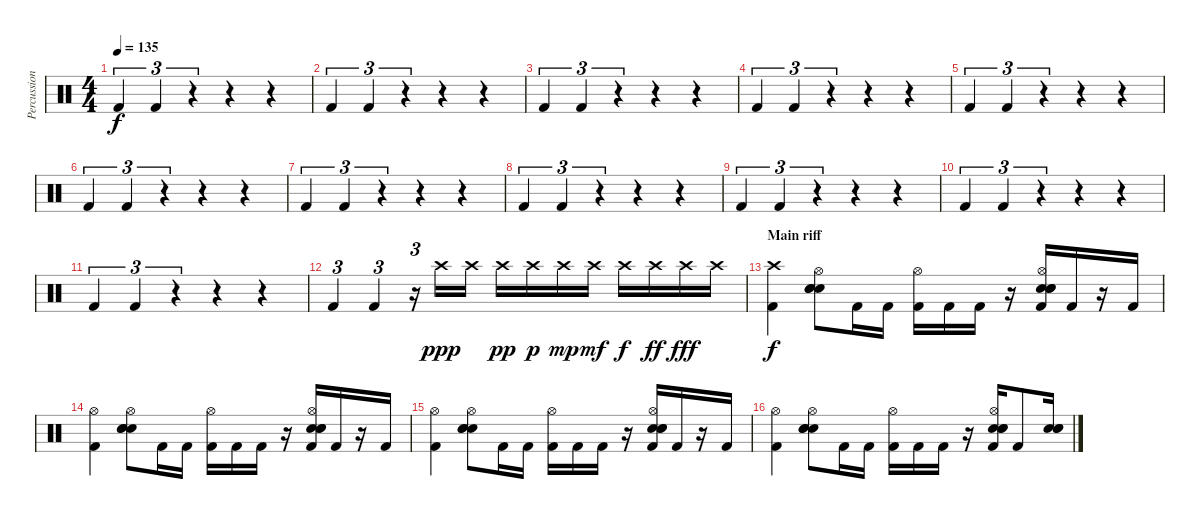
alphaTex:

\track ("Percussions" "Percussion") {instrument percussion}
\staff {score}
\articulation defaults
\ts (4 4)
\tempo 135
\clef neutral
\ks c "Kick (hit) 2".4{tu (3 2) dy f} "Kick (hit) 2".4{tu (3 2)}
r.4{tu (3 2)} r.4 r.4 |
"Kick (hit) 2".4{tu (3 2)} "Kick (hit) 2".4{tu (3 2)} r.4{tu (3 2)} r.4 r.4 |
"Kick (hit) 2".4{tu (3 2)} "Kick (hit) 2".4{tu (3 2)} r.4{tu (3 2)} r.4 r.4 |
"Kick (hit) 2".4{tu (3 2)} "Kick (hit) 2".4{tu (3 2)} r.4{tu (3 2)} r.4 r.4 |
"Kick (hit) 2".4{tu (3 2)} "Kick (hit) 2".4{tu (3 2)} r.4{tu (3 2)} r.4 r.4 |
"Kick (hit) 2".4{tu (3 2)} "Kick (hit) 2".4{tu (3 2)} r.4{tu (3 2)} r.4 r.4 |
"Kick (hit) 2".4{tu (3 2)} "Kick (hit) 2".4{tu (3 2)} r.4{tu (3 2)} r.4 r.4 |
"Kick (hit) 2".4{tu (3 2)} "Kick (hit) 2".4{tu (3 2)} r.4{tu (3 2)} r.4 r.4 |
"Kick (hit) 2".4{tu (3 2)} "Kick (hit) 2".4{tu (3 2)} r.4{tu (3 2)} r.4 r.4 |
"Kick (hit) 2".4{tu (3 2)} "Kick (hit) 2".4{tu (3 2)} r.4{tu (3 2)} r.4 r.4 |
"Kick (hit) 2".4{tu (3 2)} "Kick (hit) 2".4{tu (3 2)} r.4{tu (3 2)} r.4 r.4 |
"Kick (hit) 2".4{tu (3 2)} "Kick (hit) 2".4{tu (3 2)} r.16{tu (3 2)} "Crash high (hit)".16{dy ppp} "Crash high (hit)".16 "Crash high (hit)".16{dy pp} "Crash high (hit)".16{dy p} "Crash high (hit)".16{dy mp} "Crash high (hit)".16{dy mf} "Crash high (hit)".16{dy f} "Crash high (hit)".16{dy ff} "Crash high (hit)".16{dy fff} "Crash high (hit)".16 |
\section ("" "Main riff")
("Crash high (hit)" "Kick (hit) 2").4{dy f} ("Hi-Hat (open)" "Snare (hit) 2" "Electric Snare (hit)" "Electric Snare (hit)").8 "Kick (hit) 2".16 "Kick (hit) 2".16 ("Hi-Hat (open)" "Kick (hit) 2").16 "Kick (hit) 2".16 "Kick (hit) 2".16 r.16 ("Hi-Hat (open)" "Kick (hit) 2" "Snare (hit) 2" "Electric Snare (hit)" "Electric Snare (hit)").16 "Kick (hit) 2".16 r.16 "Kick (hit) 2".16 |
("Hi-Hat (open)" "Kick (hit) 2").4 ("Hi-Hat (open)" "Snare (hit) 2" "Electric Snare (hit)" "Electric Snare (hit)").8 "Kick (hit) 2".16 "Kick (hit) 2".16 ("Hi-Hat (open)" "Kick (hit) 2").16 "Kick (hit) 2".16 "Kick (hit) 2".16 r.16 ("Hi-Hat (open)" "Kick (hit) 2" "Snare (hit) 2" "Electric Snare (hit)" "Electric Snare (hit)").16 "Kick (hit) 2".16 r.16 "Kick (hit) 2".16 |
("Hi-Hat (open)" "Kick (hit) 2").4 ("Hi-Hat (open)" "Snare (hit) 2" "Electric Snare (hit)" "Electric Snare (hit)").8 "Kick (hit) 2".16 "Kick (hit) 2".16 ("Hi-Hat (open)" "Kick (hit) 2").16 "Kick (hit) 2".16 "Kick (hit) 2".16 r.16 ("Hi-Hat (open)" "Kick (hit) 2" "Snare (hit) 2" "Electric Snare (hit)" "Electric Snare (hit)").16 "Kick (hit) 2".16 r.16 "Kick (hit) 2".16 |
("Hi-Hat (open)" "Kick (hit) 2").4 ("Hi-Hat (open)" "Snare (hit) 2" "Electric Snare (hit)" "Electric Snare (hit)").8 "Kick (hit) 2".16 "Kick (hit) 2".16 ("Hi-Hat (open)" "Kick (hit) 2").16 "Kick (hit) 2".16 "Kick (hit) 2".16 r.16 ("Hi-Hat (open)" "Kick (hit) 2" "Snare (hit) 2" "Electric Snare (hit)" "Electric Snare (hit)").16 "Kick (hit) 2".8 ("Snare (hit) 2" "Electric Snare (hit)" "Electric Snare (hit)").16
